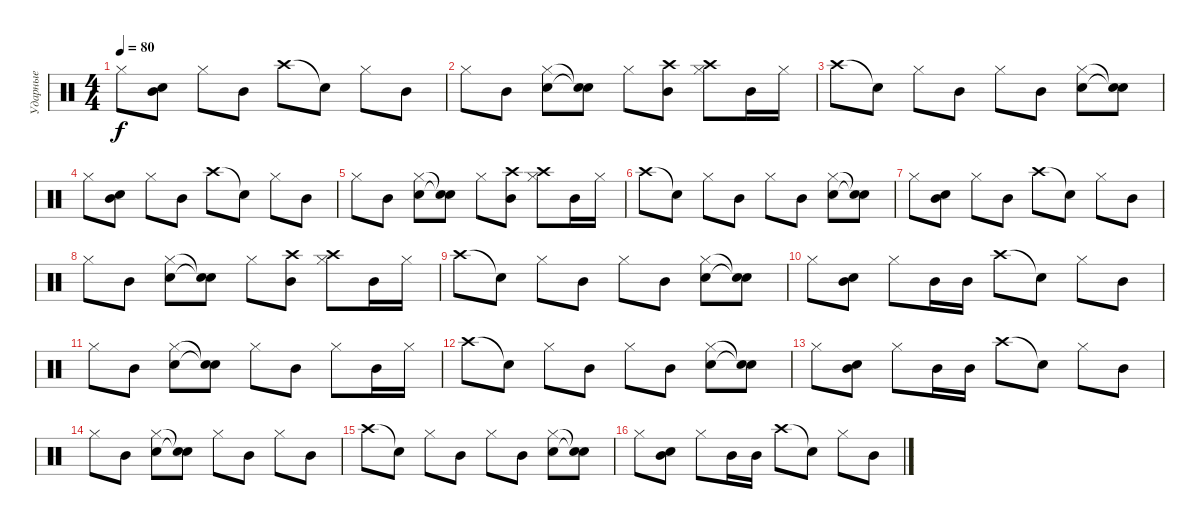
\track ("Ударные" "Ударные") {instrument percussion}
\staff {score}
\articulation defaults
\ts (4 4)
\tempo 80
\clef neutral
\ks c "Hi-Hat (closed)".8{dy f}
("Mid Tom (hit)" "Electric Snare (hit)").8 "Hi-Hat (closed)".8 "Mid Tom (hit)".8 "Crash high (hit)".8 "Snare (hit)"{t}.8 "Hi-Hat (closed)".8 "Mid Tom (hit)".8 |
"Hi-Hat (closed)".8 "Mid Tom (hit)".8 ("Electric Snare (hit)" "Hi-Hat (closed)").8 ("Snare (hit)"{t} "Snare (hit)"{t}).8 "Hi-Hat (closed)".8 ("Mid Tom (hit)" "Crash high (hit)").8 ("Hi-Hat (closed)" "Crash high (hit)").8 "Mid Tom (hit)".16 "Hi-Hat (closed)".16 |
"Crash high (hit)".8 "Snare (hit)"{t}.8 "Hi-Hat (closed)".8 "Mid Tom (hit)".8 "Hi-Hat (closed)".8 "Mid Tom (hit)".8 ("Electric Snare (hit)" "Hi-Hat (closed)").8 ("Snare (hit)"{t} "Snare (hit)"{t}).8 |
"Hi-Hat (closed)".8 ("Mid Tom (hit)" "Electric Snare (hit)").8 "Hi-Hat (closed)".8 "Mid Tom (hit)".8 "Crash high (hit)".8 "Snare (hit)"{t}.8 "Hi-Hat (closed)".8 "Mid Tom (hit)".8 |
"Hi-Hat (closed)".8 "Mid Tom (hit)".8 ("Electric Snare (hit)" "Hi-Hat (closed)").8 ("Snare (hit)"{t} "Snare (hit)"{t}).8 "Hi-Hat (closed)".8 ("Mid Tom (hit)" "Crash high (hit)").8 ("Hi-Hat (closed)" "Crash high (hit)").8 "Mid Tom (hit)".16 "Hi-Hat (closed)".16 |
"Crash high (hit)".8 "Snare (hit)"{t}.8 "Hi-Hat (closed)".8 "Mid Tom (hit)".8 "Hi-Hat (closed)".8 "Mid Tom (hit)".8 ("Electric Snare (hit)" "Hi-Hat (closed)").8 ("Snare (hit)"{t} "Snare (hit)"{t}).8 |
"Hi-Hat (closed)".8 ("Mid Tom (hit)" "Electric Snare (hit)").8 "Hi-Hat (closed)".8 "Mid Tom (hit)".8 "Crash high (hit)".8 "Snare (hit)"{t}.8 "Hi-Hat (closed)".8 "Mid Tom (hit)".8 |
"Hi-Hat (closed)".8 "Mid Tom (hit)".8 ("Electric Snare (hit)" "Hi-Hat (closed)").8 ("Snare (hit)"{t} "Snare (hit)"{t}).8 "Hi-Hat (closed)".8 ("Mid Tom (hit)" "Crash high (hit)").8 ("Hi-Hat (closed)" "Crash high (hit)").8 "Mid Tom (hit)".16 "Hi-Hat (closed)".16 |
"Crash high (hit)".8 "Snare (hit)"{t}.8 "Hi-Hat (closed)".8 "Mid Tom (hit)".8 "Hi-Hat (closed)".8 "Mid Tom (hit)".8 ("Electric Snare (hit)" "Hi-Hat (closed)").8 ("Snare (hit)"{t} "Snare (hit)"{t}).8 |
"Hi-Hat (closed)".8 ("Mid Tom (hit)" "Electric Snare (hit)").8 "Hi-Hat (closed)".8 "Mid Tom (hit)".16 "Mid Tom (hit)".16 "Crash high (hit)".8 "Snare (hit)"{t}.8 "Hi-Hat (closed)".8 "Mid Tom (hit)".8 |
"Hi-Hat (closed)".8 "Mid Tom (hit)".8 ("Electric Snare (hit)" "Hi-Hat (closed)").8 ("Snare (hit)"{t} "Snare (hit)"{t}).8 "Hi-Hat (closed)".8 "Mid Tom (hit)".8 "Hi-Hat (closed)".8 "Mid Tom (hit)".16 "Hi-Hat (closed)".16 |
"Crash high (hit)".8 "Snare (hit)"{t}.8 "Hi-Hat (closed)".8 "Mid Tom (hit)".8 "Hi-Hat (closed)".8 "Mid Tom (hit)".8 ("Electric Snare (hit)" "Hi-Hat (closed)").8 ("Snare (hit)"{t} "Snare (hit)"{t}).8 |
"Hi-Hat (closed)".8 ("Mid Tom (hit)" "Electric Snare (hit)").8 "Hi-Hat (closed)".8 "Mid Tom (hit)".16 "Mid Tom (hit)".16 "Crash high (hit)".8 "Snare (hit)"{t}.8 "Hi-Hat (closed)".8 "Mid Tom (hit)".8 |
"Hi-Hat (closed)".8 "Mid Tom (hit)".8 ("Electric Snare (hit)" "Hi-Hat (closed)").8 ("Snare (hit)"{t} "Snare (hit)"{t}).8 "Hi-Hat (closed)".8 "Mid Tom (hit)".8 "Hi-Hat (closed)".8 "Mid Tom (hit)".8 |
"Crash high (hit)".8 "Snare (hit)"{t}.8 "Hi-Hat (closed)".8 "Mid Tom (hit)".8 "Hi-Hat (closed)".8 "Mid Tom (hit)".8 ("Electric Snare (hit)" "Hi-Hat (closed)").8 ("Snare (hit)"{t} "Snare (hit)"{t}).8 |
"Hi-Hat (closed)".8 ("Mid Tom (hit)" "Electric Snare (hit)").8 "Hi-Hat (closed)".8 "Mid Tom (hit)".16 "Mid Tom (hit)".16 "Crash high (hit)".8 "Snare (hit)"{t}.8 "Hi-Hat (closed)".8 "Mid Tom (hit)".8
